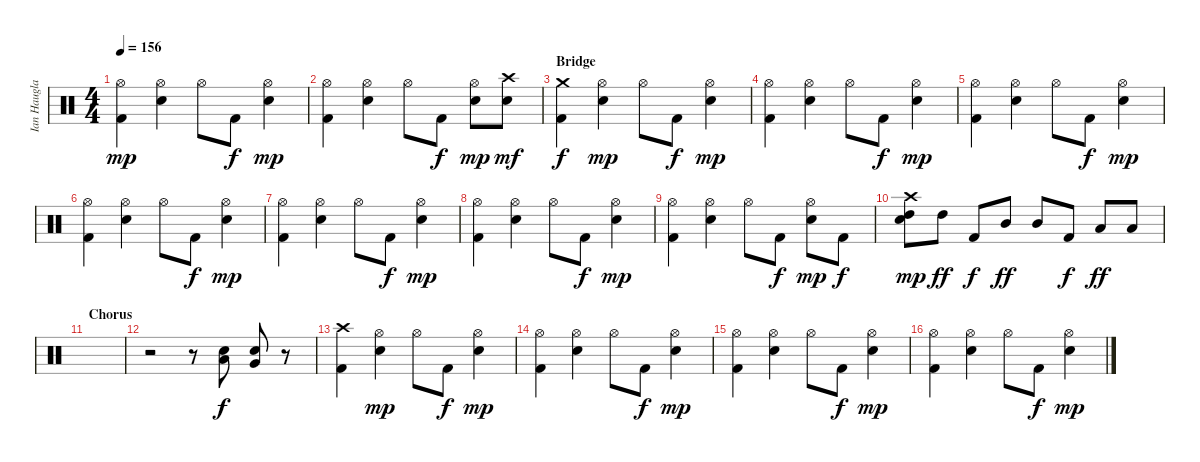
\track ("Ian Haugland" "Ian Haugla") {instrument percussion}
\staff {score}
\articulation defaults
\ts (4 4)
\tempo 156
\clef neutral
\ks c
("Kick (hit) 2" "Hi-Hat (open)").4{dy mp} ("Hi-Hat (open)" "Snare (hit) 2").4 "Hi-Hat (open)".8 "Kick (hit) 2".8{dy f} ("Hi-Hat (open)" "Snare (hit) 2").4{dy mp} |
("Kick (hit) 2" "Hi-Hat (open)").4 ("Hi-Hat (open)" "Snare (hit) 2").4 "Hi-Hat (open)".8 "Kick (hit) 2".8{dy f} ("Hi-Hat (open)" "Snare (hit) 2").8{dy mp} ("Crash high (hit)" "Snare (hit) 2").8{dy mf} |
\section ("" "Bridge")
("Kick (hit) 2" "Crash medium (hit)").4{dy f} ("Hi-Hat (open)" "Snare (hit) 2").4{dy mp} "Hi-Hat (open)".8 "Kick (hit) 2".8{dy f} ("Hi-Hat (open)" "Snare (hit) 2").4{dy mp} |
("Kick (hit) 2" "Hi-Hat (open)").4 ("Hi-Hat (open)" "Snare (hit) 2").4 "Hi-Hat (open)".8 "Kick (hit) 2".8{dy f} ("Hi-Hat (open)" "Snare (hit) 2").4{dy mp} |
("Kick (hit) 2" "Hi-Hat (open)").4 ("Hi-Hat (open)" "Snare (hit) 2").4 "Hi-Hat (open)".8 "Kick (hit) 2".8{dy f} ("Hi-Hat (open)" "Snare (hit) 2").4{dy mp} |
("Kick (hit) 2" "Hi-Hat (open)").4 ("Hi-Hat (open)" "Snare (hit) 2").4 "Hi-Hat (open)".8 "Kick (hit) 2".8{dy f} ("Hi-Hat (open)" "Snare (hit) 2").4{dy mp} |
("Kick (hit) 2" "Hi-Hat (open)").4 ("Hi-Hat (open)" "Snare (hit) 2").4 "Hi-Hat (open)".8 "Kick (hit) 2".8{dy f} ("Hi-Hat (open)" "Snare (hit) 2").4{dy mp} |
("Kick (hit) 2" "Hi-Hat (open)").4 ("Hi-Hat (open)" "Snare (hit) 2").4 "Hi-Hat (open)".8 "Kick (hit) 2".8{dy f} ("Hi-Hat (open)" "Snare (hit) 2").4{dy mp} |
("Kick (hit) 2" "Hi-Hat (open)").4 ("Hi-Hat (open)" "Snare (hit) 2").4 "Hi-Hat (open)".8 "Kick (hit) 2".8{dy f} ("Hi-Hat (open)" "Snare (hit) 2").8{dy mp} "Kick (hit) 2".8{dy f} |
("Crash high (hit)" "High Tom (hit)" "Snare (hit) 2").8{dy mp} "High Tom (hit)".8{dy ff} "Kick (hit) 2".8{dy f} "Mid Tom (hit)".8{dy ff} "Mid Tom (hit)".8 "Kick (hit) 2".8{dy f} "Low Tom (hit)".8{dy ff} "Low Tom (hit)".8 |
\section ("" "Chorus")
|
r.2 r.8 ("Snare (hit) 2" "Low Tom (hit)").8{dy f} ("Snare (hit) 2" "Very Low Tom (hit)").8 r.8 |
("Kick (hit) 2" "Crash high (hit)").4 ("Hi-Hat (open)" "Snare (hit) 2").4{dy mp} "Hi-Hat (open)".8 "Kick (hit) 2".8{dy f} ("Hi-Hat (open)" "Snare (hit) 2").4{dy mp} |
("Kick (hit) 2" "Hi-Hat (open)").4 ("Hi-Hat (open)" "Snare (hit) 2").4 "Hi-Hat (open)".8 "Kick (hit) 2".8{dy f} ("Hi-Hat (open)" "Snare (hit) 2").4{dy mp} |
("Kick (hit) 2" "Hi-Hat (open)").4 ("Hi-Hat (open)" "Snare (hit) 2").4 "Hi-Hat (open)".8 "Kick (hit) 2".8{dy f} ("Hi-Hat (open)" "Snare (hit) 2").4{dy mp} |
("Kick (hit) 2" "Hi-Hat (open)").4 ("Hi-Hat (open)" "Snare (hit) 2").4 "Hi-Hat (open)".8 "Kick (hit) 2".8{dy f} ("Hi-Hat (open)" "Snare (hit) 2").4{dy mp}
